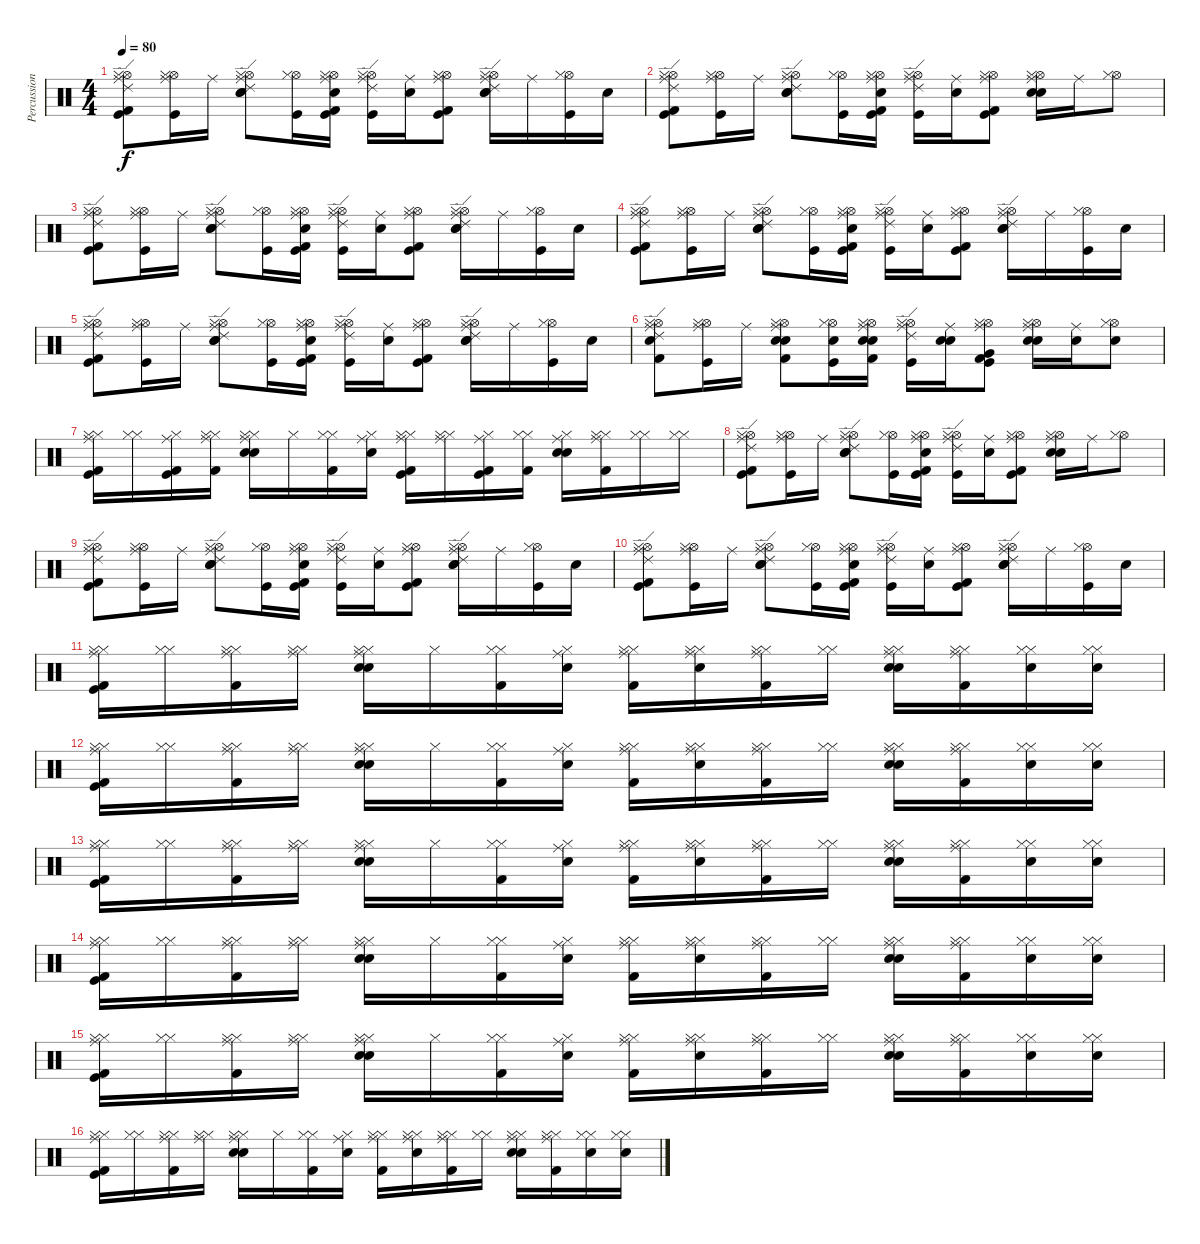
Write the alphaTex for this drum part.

\track ("Percussions" "Percussion") {instrument percussion}
\staff {score}
\articulation defaults
\ts (4 4)
\tempo 80
\clef neutral
\ks c
("Hi-Hat (open)" "Hi-Hat (closed)" "Ride (middle)" "Ride (edge) 2" "Kick (hit)" "Kick (hit) 2").8{dy f} ("Hi-Hat (open)" "Hi-Hat (closed)" "Ride (middle)" "Kick (hit)").16 "Ride (middle)".16 ("Electric Snare (hit)" "Hi-Hat (open)" "Snare (hit) 2" "Hi-Hat (closed)" "Ride (middle)" "Ride (edge) 2").8 ("Hi-Hat (open)" "Hi-Hat (closed)" "Kick (hit)").16 ("Hi-Hat (open)" "Hi-Hat (closed)" "Ride (middle)" "Snare (hit) 2" "Kick (hit)" "Kick (hit) 2").16 ("Hi-Hat (open)" "Hi-Hat (closed)" "Ride (middle)" "Kick (hit)" "Ride (edge) 2").16 ("Ride (middle)" "Snare (hit) 2").16 ("Hi-Hat (open)" "Hi-Hat (closed)" "Ride (middle)" "Kick (hit)" "Kick (hit) 2").8 ("Electric Snare (hit)" "Hi-Hat (open)" "Snare (hit) 2" "Hi-Hat (closed)" "Ride (middle)" "Ride (edge) 2").16 "Ride (middle)".16 ("Hi-Hat (open)" "Hi-Hat (closed)" "Kick (hit)").16 "Snare (hit) 2".16 |
("Hi-Hat (open)" "Hi-Hat (closed)" "Ride (middle)" "Ride (edge) 2" "Kick (hit)" "Kick (hit) 2").8 ("Hi-Hat (open)" "Hi-Hat (closed)" "Ride (middle)" "Kick (hit)").16 "Ride (middle)".16 ("Electric Snare (hit)" "Hi-Hat (open)" "Snare (hit) 2" "Hi-Hat (closed)" "Ride (middle)" "Ride (edge) 2").8 ("Hi-Hat (open)" "Hi-Hat (closed)" "Kick (hit)").16 ("Hi-Hat (open)" "Hi-Hat (closed)" "Ride (middle)" "Snare (hit) 2" "Kick (hit)" "Kick (hit) 2").16 ("Hi-Hat (open)" "Hi-Hat (closed)" "Ride (middle)" "Kick (hit)" "Ride (edge) 2").16 ("Ride (middle)" "Snare (hit) 2").16 ("Hi-Hat (open)" "Hi-Hat (closed)" "Ride (middle)" "Kick (hit)" "Kick (hit) 2").8 ("Electric Snare (hit)" "Hi-Hat (open)" "Snare (hit) 2" "Hi-Hat (closed)" "Ride (middle)").16 "Ride (middle)".16 ("Hi-Hat (open)" "Hi-Hat (closed)").8 |
("Hi-Hat (open)" "Hi-Hat (closed)" "Ride (middle)" "Ride (edge) 2" "Kick (hit)" "Kick (hit) 2").8 ("Hi-Hat (open)" "Hi-Hat (closed)" "Ride (middle)" "Kick (hit)").16 "Ride (middle)".16 ("Electric Snare (hit)" "Hi-Hat (open)" "Snare (hit) 2" "Hi-Hat (closed)" "Ride (middle)" "Ride (edge) 2").8 ("Hi-Hat (open)" "Hi-Hat (closed)" "Kick (hit)").16 ("Hi-Hat (open)" "Hi-Hat (closed)" "Ride (middle)" "Snare (hit) 2" "Kick (hit)" "Kick (hit) 2").16 ("Hi-Hat (open)" "Hi-Hat (closed)" "Ride (middle)" "Kick (hit)" "Ride (edge) 2").16 ("Ride (middle)" "Snare (hit) 2").16 ("Hi-Hat (open)" "Hi-Hat (closed)" "Ride (middle)" "Kick (hit)" "Kick (hit) 2").8 ("Electric Snare (hit)" "Hi-Hat (open)" "Snare (hit) 2" "Hi-Hat (closed)" "Ride (middle)" "Ride (edge) 2").16 "Ride (middle)".16 ("Hi-Hat (open)" "Hi-Hat (closed)" "Kick (hit)").16 "Snare (hit) 2".16 |
("Hi-Hat (open)" "Hi-Hat (closed)" "Ride (middle)" "Ride (edge) 2" "Kick (hit)" "Kick (hit) 2").8 ("Hi-Hat (open)" "Hi-Hat (closed)" "Ride (middle)" "Kick (hit)").16 "Ride (middle)".16 ("Electric Snare (hit)" "Hi-Hat (open)" "Snare (hit) 2" "Hi-Hat (closed)" "Ride (middle)" "Ride (edge) 2").8 ("Hi-Hat (open)" "Hi-Hat (closed)" "Kick (hit)").16 ("Hi-Hat (open)" "Hi-Hat (closed)" "Ride (middle)" "Snare (hit) 2" "Kick (hit)" "Kick (hit) 2").16 ("Hi-Hat (open)" "Hi-Hat (closed)" "Ride (middle)" "Kick (hit)" "Ride (edge) 2").16 ("Ride (middle)" "Snare (hit) 2").16 ("Hi-Hat (open)" "Hi-Hat (closed)" "Ride (middle)" "Kick (hit)" "Kick (hit) 2").8 ("Electric Snare (hit)" "Hi-Hat (open)" "Snare (hit) 2" "Hi-Hat (closed)" "Ride (middle)" "Ride (edge) 2").16 "Ride (middle)".16 ("Hi-Hat (open)" "Hi-Hat (closed)" "Kick (hit)").16 "Snare (hit) 2".16 |
("Hi-Hat (open)" "Hi-Hat (closed)" "Ride (middle)" "Ride (edge) 2" "Kick (hit)" "Kick (hit) 2").8 ("Hi-Hat (open)" "Hi-Hat (closed)" "Ride (middle)" "Kick (hit)").16 "Ride (middle)".16 ("Electric Snare (hit)" "Hi-Hat (open)" "Snare (hit) 2" "Hi-Hat (closed)" "Ride (middle)" "Ride (edge) 2").8 ("Hi-Hat (open)" "Hi-Hat (closed)" "Kick (hit)").16 ("Hi-Hat (open)" "Hi-Hat (closed)" "Ride (middle)" "Snare (hit) 2" "Kick (hit)" "Kick (hit) 2").16 ("Hi-Hat (open)" "Hi-Hat (closed)" "Ride (middle)" "Kick (hit)" "Ride (edge) 2").16 ("Ride (middle)" "Snare (hit) 2").16 ("Hi-Hat (open)" "Hi-Hat (closed)" "Ride (middle)" "Kick (hit)" "Kick (hit) 2").8 ("Electric Snare (hit)" "Hi-Hat (open)" "Snare (hit) 2" "Hi-Hat (closed)" "Ride (middle)" "Ride (edge) 2").16 "Ride (middle)".16 ("Hi-Hat (open)" "Hi-Hat (closed)" "Kick (hit)").16 "Snare (hit) 2".16 |
("Hi-Hat (open)" "Hi-Hat (closed)" "Ride (middle)" "Electric Snare (hit)" "Ride (edge) 2" "Kick (hit) 2").8 ("Hi-Hat (open)" "Hi-Hat (closed)" "Ride (middle)" "Kick (hit)").16 "Ride (middle)".16 ("Electric Snare (hit)" "Hi-Hat (open)" "Snare (hit) 2" "Hi-Hat (closed)" "Ride (middle)" "Kick (hit) 2").8 ("Hi-Hat (open)" "Hi-Hat (closed)" "Electric Snare (hit)" "Kick (hit)").16 ("Hi-Hat (open)" "Hi-Hat (closed)" "Ride (middle)" "Electric Snare (hit)" "Snare (hit) 2" "Kick (hit) 2").16 ("Hi-Hat (open)" "Hi-Hat (closed)" "Ride (middle)" "Kick (hit)" "Ride (edge) 2").16 ("Ride (middle)" "Electric Snare (hit)" "Snare (hit) 2").16 ("Hi-Hat (open)" "Hi-Hat (closed)" "Ride (middle)" "Very Low Tom (hit)" "Kick (hit)" "Kick (hit) 2").8 ("Electric Snare (hit)" "Hi-Hat (open)" "Snare (hit) 2" "Hi-Hat (closed)" "Ride (middle)").16 ("Ride (middle)" "Electric Snare (hit)").16 ("Hi-Hat (open)" "Hi-Hat (closed)" "Electric Snare (hit)").8 |
("Ride (middle)" "Hi-Hat (closed)" "Hi-Hat (closed)" "Kick (hit)" "Kick (hit) 2").16 ("Hi-Hat (closed)" "Hi-Hat (closed)").16 ("Hi-Hat (closed)" "Ride (middle)" "Kick (hit)" "Kick (hit) 2").16 ("Hi-Hat (closed)" "Hi-Hat (closed)" "Ride (middle)" "Kick (hit) 2").16 ("Snare (hit) 2" "Electric Snare (hit)" "Hi-Hat (closed)" "Hi-Hat (closed)" "Ride (middle)").16 "Hi-Hat (closed)".16 ("Hi-Hat (closed)" "Hi-Hat (closed)" "Kick (hit) 2").16 ("Electric Snare (hit)" "Hi-Hat (closed)" "Ride (middle)").16 ("Hi-Hat (closed)" "Hi-Hat (closed)" "Ride (middle)" "Kick (hit)" "Kick (hit) 2").16 ("Hi-Hat (closed)" "Hi-Hat (closed)" "Ride (middle)").16 ("Hi-Hat (closed)" "Ride (middle)" "Kick (hit) 2" "Kick (hit)").16 ("Hi-Hat (closed)" "Hi-Hat (closed)" "Kick (hit) 2").16 ("Snare (hit) 2" "Electric Snare (hit)" "Hi-Hat (closed)" "Ride (middle)").16 ("Hi-Hat (closed)" "Hi-Hat (closed)" "Ride (middle)" "Kick (hit) 2").16 ("Hi-Hat (closed)" "Hi-Hat (closed)").16 ("Hi-Hat (closed)" "Hi-Hat (closed)").16 |
("Hi-Hat (open)" "Hi-Hat (closed)" "Ride (middle)" "Ride (edge) 2" "Kick (hit)" "Kick (hit) 2").8 ("Hi-Hat (open)" "Hi-Hat (closed)" "Ride (middle)" "Kick (hit)").16 "Ride (middle)".16 ("Electric Snare (hit)" "Hi-Hat (open)" "Snare (hit) 2" "Hi-Hat (closed)" "Ride (middle)" "Ride (edge) 2").8 ("Hi-Hat (open)" "Hi-Hat (closed)" "Kick (hit)").16 ("Hi-Hat (open)" "Hi-Hat (closed)" "Ride (middle)" "Snare (hit) 2" "Kick (hit)" "Kick (hit) 2").16 ("Hi-Hat (open)" "Hi-Hat (closed)" "Ride (middle)" "Kick (hit)" "Ride (edge) 2").16 ("Ride (middle)" "Snare (hit) 2").16 ("Hi-Hat (open)" "Hi-Hat (closed)" "Ride (middle)" "Kick (hit)" "Kick (hit) 2").8 ("Electric Snare (hit)" "Hi-Hat (open)" "Snare (hit) 2" "Hi-Hat (closed)" "Ride (middle)").16 "Ride (middle)".16 ("Hi-Hat (open)" "Hi-Hat (closed)").8 |
("Hi-Hat (open)" "Hi-Hat (closed)" "Ride (middle)" "Ride (edge) 2" "Kick (hit)" "Kick (hit) 2").8 ("Hi-Hat (open)" "Hi-Hat (closed)" "Ride (middle)" "Kick (hit)").16 "Ride (middle)".16 ("Electric Snare (hit)" "Hi-Hat (open)" "Snare (hit) 2" "Hi-Hat (closed)" "Ride (middle)" "Ride (edge) 2").8 ("Hi-Hat (open)" "Hi-Hat (closed)" "Kick (hit)").16 ("Hi-Hat (open)" "Hi-Hat (closed)" "Ride (middle)" "Snare (hit) 2" "Kick (hit)" "Kick (hit) 2").16 ("Hi-Hat (open)" "Hi-Hat (closed)" "Ride (middle)" "Kick (hit)" "Ride (edge) 2").16 ("Ride (middle)" "Snare (hit) 2").16 ("Hi-Hat (open)" "Hi-Hat (closed)" "Ride (middle)" "Kick (hit)" "Kick (hit) 2").8 ("Electric Snare (hit)" "Hi-Hat (open)" "Snare (hit) 2" "Hi-Hat (closed)" "Ride (middle)" "Ride (edge) 2").16 "Ride (middle)".16 ("Hi-Hat (open)" "Hi-Hat (closed)" "Kick (hit)").16 "Snare (hit) 2".16 |
("Hi-Hat (open)" "Hi-Hat (closed)" "Ride (middle)" "Ride (edge) 2" "Kick (hit)" "Kick (hit) 2").8 ("Hi-Hat (open)" "Hi-Hat (closed)" "Ride (middle)" "Kick (hit)").16 "Ride (middle)".16 ("Electric Snare (hit)" "Hi-Hat (open)" "Snare (hit) 2" "Hi-Hat (closed)" "Ride (middle)" "Ride (edge) 2").8 ("Hi-Hat (open)" "Hi-Hat (closed)" "Kick (hit)").16 ("Hi-Hat (open)" "Hi-Hat (closed)" "Ride (middle)" "Snare (hit) 2" "Kick (hit)" "Kick (hit) 2").16 ("Hi-Hat (open)" "Hi-Hat (closed)" "Ride (middle)" "Kick (hit)" "Ride (edge) 2").16 ("Ride (middle)" "Snare (hit) 2").16 ("Hi-Hat (open)" "Hi-Hat (closed)" "Ride (middle)" "Kick (hit)" "Kick (hit) 2").8 ("Electric Snare (hit)" "Hi-Hat (open)" "Snare (hit) 2" "Hi-Hat (closed)" "Ride (middle)" "Ride (edge) 2").16 "Ride (middle)".16 ("Hi-Hat (open)" "Hi-Hat (closed)" "Kick (hit)").16 "Snare (hit) 2".16 |
("Hi-Hat (closed)" "Hi-Hat (closed)" "Ride (middle)" "Kick (hit) 2" "Kick (hit)").16 ("Hi-Hat (closed)" "Hi-Hat (closed)").16 ("Hi-Hat (closed)" "Ride (middle)" "Hi-Hat (closed)" "Kick (hit) 2").16 ("Hi-Hat (closed)" "Hi-Hat (closed)" "Ride (middle)").16 ("Snare (hit) 2" "Electric Snare (hit)" "Hi-Hat (closed)" "Hi-Hat (closed)" "Ride (middle)").16 "Hi-Hat (closed)".16 ("Hi-Hat (closed)" "Hi-Hat (closed)" "Kick (hit) 2").16 ("Electric Snare (hit)" "Hi-Hat (closed)" "Ride (middle)").16 ("Hi-Hat (closed)" "Hi-Hat (closed)" "Ride (middle)" "Kick (hit) 2").16 ("Hi-Hat (closed)" "Hi-Hat (closed)" "Ride (middle)" "Electric Snare (hit)").16 ("Hi-Hat (closed)" "Ride (middle)" "Hi-Hat (closed)" "Kick (hit) 2").16 ("Hi-Hat (closed)" "Hi-Hat (closed)").16 ("Snare (hit) 2" "Electric Snare (hit)" "Hi-Hat (closed)" "Ride (middle)" "Hi-Hat (closed)").16 ("Hi-Hat (closed)" "Hi-Hat (closed)" "Ride (middle)" "Kick (hit) 2").16 ("Hi-Hat (closed)" "Hi-Hat (closed)" "Electric Snare (hit)").16 ("Hi-Hat (closed)" "Hi-Hat (closed)" "Electric Snare (hit)").16 |
("Hi-Hat (closed)" "Hi-Hat (closed)" "Ride (middle)" "Kick (hit) 2" "Kick (hit)").16 ("Hi-Hat (closed)" "Hi-Hat (closed)").16 ("Hi-Hat (closed)" "Ride (middle)" "Hi-Hat (closed)" "Kick (hit) 2").16 ("Hi-Hat (closed)" "Hi-Hat (closed)" "Ride (middle)").16 ("Snare (hit) 2" "Electric Snare (hit)" "Hi-Hat (closed)" "Hi-Hat (closed)" "Ride (middle)").16 "Hi-Hat (closed)".16 ("Hi-Hat (closed)" "Hi-Hat (closed)" "Kick (hit) 2").16 ("Electric Snare (hit)" "Hi-Hat (closed)" "Ride (middle)").16 ("Hi-Hat (closed)" "Hi-Hat (closed)" "Ride (middle)" "Kick (hit) 2").16 ("Hi-Hat (closed)" "Hi-Hat (closed)" "Ride (middle)" "Electric Snare (hit)").16 ("Hi-Hat (closed)" "Ride (middle)" "Hi-Hat (closed)" "Kick (hit) 2").16 ("Hi-Hat (closed)" "Hi-Hat (closed)").16 ("Snare (hit) 2" "Electric Snare (hit)" "Hi-Hat (closed)" "Ride (middle)" "Hi-Hat (closed)").16 ("Hi-Hat (closed)" "Hi-Hat (closed)" "Ride (middle)" "Kick (hit) 2").16 ("Hi-Hat (closed)" "Hi-Hat (closed)" "Electric Snare (hit)").16 ("Hi-Hat (closed)" "Hi-Hat (closed)" "Electric Snare (hit)").16 |
("Hi-Hat (closed)" "Hi-Hat (closed)" "Ride (middle)" "Kick (hit) 2" "Kick (hit)").16 ("Hi-Hat (closed)" "Hi-Hat (closed)").16 ("Hi-Hat (closed)" "Ride (middle)" "Hi-Hat (closed)" "Kick (hit) 2").16 ("Hi-Hat (closed)" "Hi-Hat (closed)" "Ride (middle)").16 ("Snare (hit) 2" "Electric Snare (hit)" "Hi-Hat (closed)" "Hi-Hat (closed)" "Ride (middle)").16 "Hi-Hat (closed)".16 ("Hi-Hat (closed)" "Hi-Hat (closed)" "Kick (hit) 2").16 ("Electric Snare (hit)" "Hi-Hat (closed)" "Ride (middle)").16 ("Hi-Hat (closed)" "Hi-Hat (closed)" "Ride (middle)" "Kick (hit) 2").16 ("Hi-Hat (closed)" "Hi-Hat (closed)" "Ride (middle)" "Electric Snare (hit)").16 ("Hi-Hat (closed)" "Ride (middle)" "Hi-Hat (closed)" "Kick (hit) 2").16 ("Hi-Hat (closed)" "Hi-Hat (closed)").16 ("Snare (hit) 2" "Electric Snare (hit)" "Hi-Hat (closed)" "Ride (middle)" "Hi-Hat (closed)").16 ("Hi-Hat (closed)" "Hi-Hat (closed)" "Ride (middle)" "Kick (hit) 2").16 ("Hi-Hat (closed)" "Hi-Hat (closed)" "Electric Snare (hit)").16 ("Hi-Hat (closed)" "Hi-Hat (closed)" "Electric Snare (hit)").16 |
("Hi-Hat (closed)" "Hi-Hat (closed)" "Ride (middle)" "Kick (hit) 2" "Kick (hit)").16 ("Hi-Hat (closed)" "Hi-Hat (closed)").16 ("Hi-Hat (closed)" "Ride (middle)" "Hi-Hat (closed)" "Kick (hit) 2").16 ("Hi-Hat (closed)" "Hi-Hat (closed)" "Ride (middle)").16 ("Snare (hit) 2" "Electric Snare (hit)" "Hi-Hat (closed)" "Hi-Hat (closed)" "Ride (middle)").16 "Hi-Hat (closed)".16 ("Hi-Hat (closed)" "Hi-Hat (closed)" "Kick (hit) 2").16 ("Electric Snare (hit)" "Hi-Hat (closed)" "Ride (middle)").16 ("Hi-Hat (closed)" "Hi-Hat (closed)" "Ride (middle)" "Kick (hit) 2").16 ("Hi-Hat (closed)" "Hi-Hat (closed)" "Ride (middle)" "Electric Snare (hit)").16 ("Hi-Hat (closed)" "Ride (middle)" "Hi-Hat (closed)" "Kick (hit) 2").16 ("Hi-Hat (closed)" "Hi-Hat (closed)").16 ("Snare (hit) 2" "Electric Snare (hit)" "Hi-Hat (closed)" "Ride (middle)" "Hi-Hat (closed)").16 ("Hi-Hat (closed)" "Hi-Hat (closed)" "Ride (middle)" "Kick (hit) 2").16 ("Hi-Hat (closed)" "Hi-Hat (closed)" "Electric Snare (hit)").16 ("Hi-Hat (closed)" "Hi-Hat (closed)" "Electric Snare (hit)").16 |
("Hi-Hat (closed)" "Hi-Hat (closed)" "Ride (middle)" "Kick (hit) 2" "Kick (hit)").16 ("Hi-Hat (closed)" "Hi-Hat (closed)").16 ("Hi-Hat (closed)" "Ride (middle)" "Hi-Hat (closed)" "Kick (hit) 2").16 ("Hi-Hat (closed)" "Hi-Hat (closed)" "Ride (middle)").16 ("Snare (hit) 2" "Electric Snare (hit)" "Hi-Hat (closed)" "Hi-Hat (closed)" "Ride (middle)").16 "Hi-Hat (closed)".16 ("Hi-Hat (closed)" "Hi-Hat (closed)" "Kick (hit) 2").16 ("Electric Snare (hit)" "Hi-Hat (closed)" "Ride (middle)").16 ("Hi-Hat (closed)" "Hi-Hat (closed)" "Ride (middle)" "Kick (hit) 2").16 ("Hi-Hat (closed)" "Hi-Hat (closed)" "Ride (middle)" "Electric Snare (hit)").16 ("Hi-Hat (closed)" "Ride (middle)" "Hi-Hat (closed)" "Kick (hit) 2").16 ("Hi-Hat (closed)" "Hi-Hat (closed)").16 ("Snare (hit) 2" "Electric Snare (hit)" "Hi-Hat (closed)" "Ride (middle)" "Hi-Hat (closed)").16 ("Hi-Hat (closed)" "Hi-Hat (closed)" "Ride (middle)" "Kick (hit) 2").16 ("Hi-Hat (closed)" "Hi-Hat (closed)" "Electric Snare (hit)").16 ("Hi-Hat (closed)" "Hi-Hat (closed)" "Electric Snare (hit)").16 |
("Hi-Hat (closed)" "Hi-Hat (closed)" "Ride (middle)" "Kick (hit) 2" "Kick (hit)").16 ("Hi-Hat (closed)" "Hi-Hat (closed)").16 ("Hi-Hat (closed)" "Ride (middle)" "Hi-Hat (closed)" "Kick (hit) 2").16 ("Hi-Hat (closed)" "Hi-Hat (closed)" "Ride (middle)").16 ("Snare (hit) 2" "Electric Snare (hit)" "Hi-Hat (closed)" "Hi-Hat (closed)" "Ride (middle)").16 "Hi-Hat (closed)".16 ("Hi-Hat (closed)" "Hi-Hat (closed)" "Kick (hit) 2").16 ("Electric Snare (hit)" "Hi-Hat (closed)" "Ride (middle)").16 ("Hi-Hat (closed)" "Hi-Hat (closed)" "Ride (middle)" "Kick (hit) 2").16 ("Hi-Hat (closed)" "Hi-Hat (closed)" "Ride (middle)" "Electric Snare (hit)").16 ("Hi-Hat (closed)" "Ride (middle)" "Hi-Hat (closed)" "Kick (hit) 2").16 ("Hi-Hat (closed)" "Hi-Hat (closed)").16 ("Snare (hit) 2" "Electric Snare (hit)" "Hi-Hat (closed)" "Ride (middle)" "Hi-Hat (closed)").16 ("Hi-Hat (closed)" "Hi-Hat (closed)" "Ride (middle)" "Kick (hit) 2").16 ("Hi-Hat (closed)" "Hi-Hat (closed)" "Electric Snare (hit)").16 ("Hi-Hat (closed)" "Hi-Hat (closed)" "Electric Snare (hit)").16
